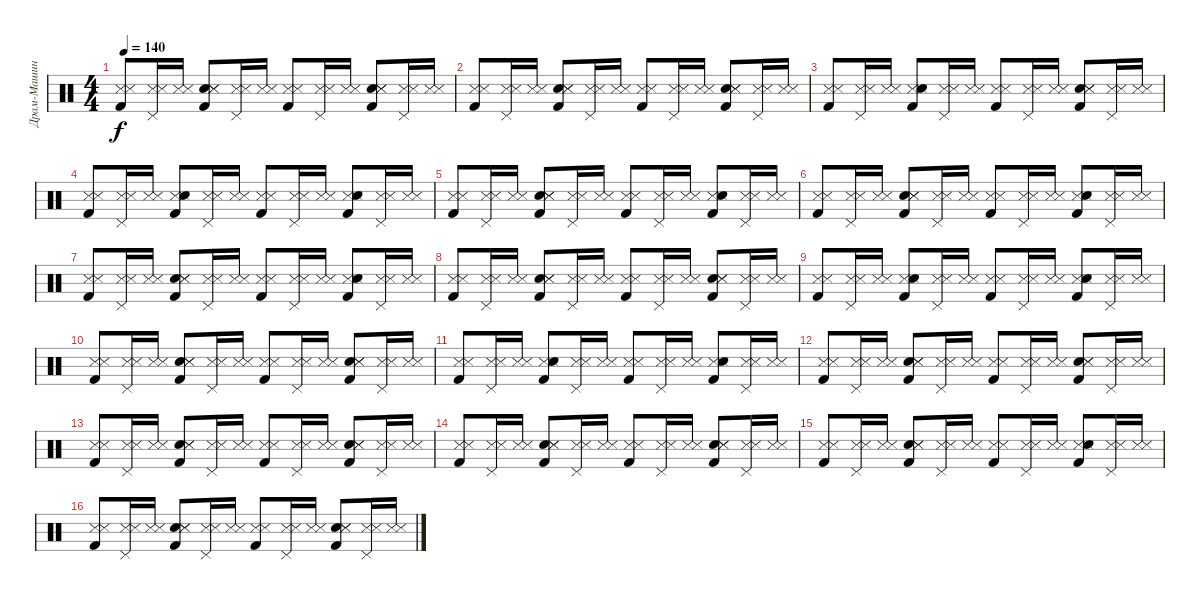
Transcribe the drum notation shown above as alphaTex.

\track ("Драм-Машина" "Драм-Машин") {instrument percussion}
\staff {score}
\articulation defaults
\ts (4 4)
\tempo 140
\clef neutral
\ks c
("Kick (hit) 2" "Snare (side stick) 3" "Metronome (hit)").8{dy f} ("Snare (side stick) 3" "Pedal Hi-Hat (hit)" "Metronome (hit)").16 ("Snare (side stick) 3" "Metronome (hit)").16 ("Kick (hit) 2" "Snare (hit) 2" "Snare (side stick) 3" "Metronome (hit)").8 ("Pedal Hi-Hat (hit)" "Snare (side stick) 3" "Metronome (hit)").16 ("Snare (side stick) 3" "Metronome (hit)").16 ("Kick (hit) 2" "Snare (side stick) 3" "Metronome (hit)").8 ("Snare (side stick) 3" "Pedal Hi-Hat (hit)" "Metronome (hit)").16 ("Snare (side stick) 3" "Metronome (hit)").16 ("Snare (hit) 2" "Snare (side stick) 3" "Kick (hit) 2" "Metronome (hit)").8 ("Pedal Hi-Hat (hit)" "Snare (side stick) 3" "Metronome (hit)").16 ("Snare (side stick) 3" "Metronome (hit)").16 |
("Kick (hit) 2" "Snare (side stick) 3" "Metronome (hit)").8 ("Snare (side stick) 3" "Pedal Hi-Hat (hit)" "Metronome (hit)").16 ("Snare (side stick) 3" "Metronome (hit)").16 ("Kick (hit) 2" "Snare (hit) 2" "Snare (side stick) 3" "Metronome (hit)").8 ("Pedal Hi-Hat (hit)" "Snare (side stick) 3" "Metronome (hit)").16 ("Snare (side stick) 3" "Metronome (hit)").16 ("Kick (hit) 2" "Snare (side stick) 3" "Metronome (hit)").8 ("Pedal Hi-Hat (hit)" "Snare (side stick) 3" "Metronome (hit)").16 ("Snare (side stick) 3" "Metronome (hit)").16 ("Kick (hit) 2" "Snare (hit) 2" "Snare (side stick) 3" "Metronome (hit)").8 ("Pedal Hi-Hat (hit)" "Snare (side stick) 3" "Metronome (hit)").16 ("Snare (side stick) 3" "Metronome (hit)").16 |
("Snare (side stick) 3" "Kick (hit) 2" "Metronome (hit)").8 ("Pedal Hi-Hat (hit)" "Snare (side stick) 3" "Metronome (hit)").16 ("Snare (side stick) 3" "Metronome (hit)").16 ("Snare (side stick) 3" "Kick (hit) 2" "Snare (hit) 2" "Metronome (hit)").8 ("Snare (side stick) 3" "Pedal Hi-Hat (hit)" "Metronome (hit)").16 ("Snare (side stick) 3" "Metronome (hit)").16 ("Kick (hit) 2" "Snare (side stick) 3" "Metronome (hit)").8 ("Pedal Hi-Hat (hit)" "Snare (side stick) 3" "Metronome (hit)").16 ("Snare (side stick) 3" "Metronome (hit)").16 ("Kick (hit) 2" "Snare (hit) 2" "Snare (side stick) 3" "Metronome (hit)").8 ("Pedal Hi-Hat (hit)" "Snare (side stick) 3" "Metronome (hit)").16 ("Snare (side stick) 3" "Metronome (hit)").16 |
("Kick (hit) 2" "Snare (side stick) 3" "Metronome (hit)").8 ("Pedal Hi-Hat (hit)" "Snare (side stick) 3" "Metronome (hit)").16 ("Snare (side stick) 3" "Metronome (hit)").16 ("Snare (side stick) 3" "Kick (hit) 2" "Snare (hit) 2" "Metronome (hit)").8 ("Pedal Hi-Hat (hit)" "Snare (side stick) 3" "Metronome (hit)").16 ("Snare (side stick) 3" "Metronome (hit)").16 ("Kick (hit) 2" "Snare (side stick) 3" "Metronome (hit)").8 ("Pedal Hi-Hat (hit)" "Snare (side stick) 3" "Metronome (hit)").16 ("Snare (side stick) 3" "Metronome (hit)").16 ("Kick (hit) 2" "Snare (side stick) 3" "Snare (hit) 2" "Metronome (hit)").8 ("Snare (side stick) 3" "Pedal Hi-Hat (hit)" "Metronome (hit)").16 ("Snare (side stick) 3" "Metronome (hit)").16 |
("Kick (hit) 2" "Snare (side stick) 3" "Metronome (hit)").8 ("Pedal Hi-Hat (hit)" "Snare (side stick) 3" "Metronome (hit)").16 ("Snare (side stick) 3" "Metronome (hit)").16 ("Snare (hit) 2" "Snare (side stick) 3" "Kick (hit) 2" "Metronome (hit)").8 ("Snare (side stick) 3" "Pedal Hi-Hat (hit)" "Metronome (hit)").16 ("Snare (side stick) 3" "Metronome (hit)").16 ("Snare (side stick) 3" "Kick (hit) 2" "Metronome (hit)").8 ("Pedal Hi-Hat (hit)" "Snare (side stick) 3" "Metronome (hit)").16 ("Snare (side stick) 3" "Metronome (hit)").16 ("Kick (hit) 2" "Snare (side stick) 3" "Snare (hit) 2" "Metronome (hit)").8 ("Snare (side stick) 3" "Pedal Hi-Hat (hit)" "Metronome (hit)").16 ("Snare (side stick) 3" "Metronome (hit)").16 |
("Kick (hit) 2" "Snare (side stick) 3" "Metronome (hit)").8 ("Pedal Hi-Hat (hit)" "Snare (side stick) 3" "Metronome (hit)").16 ("Snare (side stick) 3" "Metronome (hit)").16 ("Snare (hit) 2" "Kick (hit) 2" "Snare (side stick) 3" "Metronome (hit)").8 ("Pedal Hi-Hat (hit)" "Snare (side stick) 3" "Metronome (hit)").16 ("Snare (side stick) 3" "Metronome (hit)").16 ("Kick (hit) 2" "Snare (side stick) 3" "Metronome (hit)").8 ("Snare (side stick) 3" "Pedal Hi-Hat (hit)" "Metronome (hit)").16 ("Snare (side stick) 3" "Metronome (hit)").16 ("Snare (side stick) 3" "Kick (hit) 2" "Snare (hit) 2" "Metronome (hit)").8 ("Pedal Hi-Hat (hit)" "Snare (side stick) 3" "Metronome (hit)").16 ("Snare (side stick) 3" "Metronome (hit)").16 |
("Kick (hit) 2" "Snare (side stick) 3" "Metronome (hit)").8 ("Pedal Hi-Hat (hit)" "Snare (side stick) 3" "Metronome (hit)").16 ("Snare (side stick) 3" "Metronome (hit)").16 ("Snare (hit) 2" "Kick (hit) 2" "Snare (side stick) 3" "Metronome (hit)").8 ("Pedal Hi-Hat (hit)" "Snare (side stick) 3" "Metronome (hit)").16 ("Snare (side stick) 3" "Metronome (hit)").16 ("Kick (hit) 2" "Snare (side stick) 3" "Metronome (hit)").8 ("Snare (side stick) 3" "Pedal Hi-Hat (hit)" "Metronome (hit)").16 ("Snare (side stick) 3" "Metronome (hit)").16 ("Kick (hit) 2" "Snare (side stick) 3" "Snare (hit) 2" "Metronome (hit)").8 ("Pedal Hi-Hat (hit)" "Snare (side stick) 3" "Metronome (hit)").16 ("Snare (side stick) 3" "Metronome (hit)").16 |
("Kick (hit) 2" "Snare (side stick) 3" "Metronome (hit)").8 ("Pedal Hi-Hat (hit)" "Snare (side stick) 3" "Metronome (hit)").16 ("Snare (side stick) 3" "Metronome (hit)").16 ("Snare (hit) 2" "Kick (hit) 2" "Snare (side stick) 3" "Metronome (hit)").8 ("Pedal Hi-Hat (hit)" "Snare (side stick) 3" "Metronome (hit)").16 ("Snare (side stick) 3" "Metronome (hit)").16 ("Snare (side stick) 3" "Kick (hit) 2" "Metronome (hit)").8 ("Snare (side stick) 3" "Pedal Hi-Hat (hit)" "Metronome (hit)").16 ("Snare (side stick) 3" "Metronome (hit)").16 ("Kick (hit) 2" "Snare (hit) 2" "Snare (side stick) 3" "Metronome (hit)").8 ("Pedal Hi-Hat (hit)" "Snare (side stick) 3" "Metronome (hit)").16 ("Snare (side stick) 3" "Metronome (hit)").16 |
("Kick (hit) 2" "Snare (side stick) 3" "Metronome (hit)").8 ("Pedal Hi-Hat (hit)" "Snare (side stick) 3" "Metronome (hit)").16 ("Snare (side stick) 3" "Metronome (hit)").16 ("Snare (side stick) 3" "Snare (hit) 2" "Kick (hit) 2" "Metronome (hit)").8 ("Pedal Hi-Hat (hit)" "Snare (side stick) 3" "Metronome (hit)").16 ("Snare (side stick) 3" "Metronome (hit)").16 ("Snare (side stick) 3" "Kick (hit) 2" "Metronome (hit)").8 ("Pedal Hi-Hat (hit)" "Snare (side stick) 3" "Metronome (hit)").16 ("Snare (side stick) 3" "Metronome (hit)").16 ("Kick (hit) 2" "Snare (side stick) 3" "Snare (hit) 2" "Metronome (hit)").8 ("Pedal Hi-Hat (hit)" "Snare (side stick) 3" "Metronome (hit)").16 ("Snare (side stick) 3" "Metronome (hit)").16 |
("Kick (hit) 2" "Snare (side stick) 3" "Metronome (hit)").8 ("Snare (side stick) 3" "Pedal Hi-Hat (hit)" "Metronome (hit)").16 ("Snare (side stick) 3" "Metronome (hit)").16 ("Snare (hit) 2" "Kick (hit) 2" "Snare (side stick) 3" "Metronome (hit)").8 ("Pedal Hi-Hat (hit)" "Snare (side stick) 3" "Metronome (hit)").16 ("Snare (side stick) 3" "Metronome (hit)").16 ("Snare (side stick) 3" "Kick (hit) 2" "Metronome (hit)").8 ("Pedal Hi-Hat (hit)" "Snare (side stick) 3" "Metronome (hit)").16 ("Snare (side stick) 3" "Metronome (hit)").16 ("Kick (hit) 2" "Snare (hit) 2" "Snare (side stick) 3" "Metronome (hit)").8 ("Pedal Hi-Hat (hit)" "Snare (side stick) 3" "Metronome (hit)").16 ("Snare (side stick) 3" "Metronome (hit)").16 |
("Kick (hit) 2" "Snare (side stick) 3" "Metronome (hit)").8 ("Pedal Hi-Hat (hit)" "Snare (side stick) 3" "Metronome (hit)").16 ("Snare (side stick) 3" "Metronome (hit)").16 ("Kick (hit) 2" "Snare (side stick) 3" "Snare (hit) 2" "Metronome (hit)").8 ("Pedal Hi-Hat (hit)" "Snare (side stick) 3" "Metronome (hit)").16 ("Snare (side stick) 3" "Metronome (hit)").16 ("Kick (hit) 2" "Snare (side stick) 3" "Metronome (hit)").8 ("Pedal Hi-Hat (hit)" "Snare (side stick) 3" "Metronome (hit)").16 ("Snare (side stick) 3" "Metronome (hit)").16 ("Snare (side stick) 3" "Snare (hit) 2" "Kick (hit) 2" "Metronome (hit)").8 ("Snare (side stick) 3" "Pedal Hi-Hat (hit)" "Metronome (hit)").16 ("Snare (side stick) 3" "Metronome (hit)").16 |
("Snare (side stick) 3" "Kick (hit) 2" "Metronome (hit)").8 ("Snare (side stick) 3" "Pedal Hi-Hat (hit)" "Metronome (hit)").16 ("Snare (side stick) 3" "Metronome (hit)").16 ("Snare (hit) 2" "Snare (side stick) 3" "Kick (hit) 2" "Metronome (hit)").8 ("Pedal Hi-Hat (hit)" "Snare (side stick) 3" "Metronome (hit)").16 ("Snare (side stick) 3" "Metronome (hit)").16 ("Kick (hit) 2" "Snare (side stick) 3" "Metronome (hit)").8 ("Snare (side stick) 3" "Pedal Hi-Hat (hit)" "Metronome (hit)").16 ("Snare (side stick) 3" "Metronome (hit)").16 ("Kick (hit) 2" "Snare (hit) 2" "Snare (side stick) 3" "Metronome (hit)").8 ("Pedal Hi-Hat (hit)" "Snare (side stick) 3" "Metronome (hit)").16 ("Snare (side stick) 3" "Metronome (hit)").16 |
("Kick (hit) 2" "Snare (side stick) 3" "Metronome (hit)").8 ("Pedal Hi-Hat (hit)" "Snare (side stick) 3" "Metronome (hit)").16 ("Snare (side stick) 3" "Metronome (hit)").16 ("Kick (hit) 2" "Snare (hit) 2" "Snare (side stick) 3" "Metronome (hit)").8 ("Pedal Hi-Hat (hit)" "Snare (side stick) 3" "Metronome (hit)").16 ("Snare (side stick) 3" "Metronome (hit)").16 ("Snare (side stick) 3" "Kick (hit) 2" "Metronome (hit)").8 ("Pedal Hi-Hat (hit)" "Snare (side stick) 3" "Metronome (hit)").16 ("Snare (side stick) 3" "Metronome (hit)").16 ("Kick (hit) 2" "Snare (hit) 2" "Snare (side stick) 3" "Metronome (hit)").8 ("Pedal Hi-Hat (hit)" "Snare (side stick) 3" "Metronome (hit)").16 ("Snare (side stick) 3" "Metronome (hit)").16 |
("Kick (hit) 2" "Snare (side stick) 3" "Metronome (hit)").8 ("Pedal Hi-Hat (hit)" "Snare (side stick) 3" "Metronome (hit)").16 ("Snare (side stick) 3" "Metronome (hit)").16 ("Kick (hit) 2" "Snare (hit) 2" "Snare (side stick) 3" "Metronome (hit)").8 ("Pedal Hi-Hat (hit)" "Snare (side stick) 3" "Metronome (hit)").16 ("Snare (side stick) 3" "Metronome (hit)").16 ("Snare (side stick) 3" "Kick (hit) 2" "Metronome (hit)").8 ("Pedal Hi-Hat (hit)" "Snare (side stick) 3" "Metronome (hit)").16 ("Snare (side stick) 3" "Metronome (hit)").16 ("Kick (hit) 2" "Snare (hit) 2" "Snare (side stick) 3" "Metronome (hit)").8 ("Pedal Hi-Hat (hit)" "Snare (side stick) 3" "Metronome (hit)").16 ("Snare (side stick) 3" "Metronome (hit)").16 |
("Kick (hit) 2" "Snare (side stick) 3" "Metronome (hit)").8 ("Pedal Hi-Hat (hit)" "Snare (side stick) 3" "Metronome (hit)").16 ("Snare (side stick) 3" "Metronome (hit)").16 ("Snare (hit) 2" "Kick (hit) 2" "Snare (side stick) 3" "Metronome (hit)").8 ("Pedal Hi-Hat (hit)" "Snare (side stick) 3" "Metronome (hit)").16 ("Snare (side stick) 3" "Metronome (hit)").16 ("Snare (side stick) 3" "Kick (hit) 2" "Metronome (hit)").8 ("Snare (side stick) 3" "Pedal Hi-Hat (hit)" "Metronome (hit)").16 ("Snare (side stick) 3" "Metronome (hit)").16 ("Kick (hit) 2" "Snare (side stick) 3" "Snare (hit) 2" "Metronome (hit)").8 ("Pedal Hi-Hat (hit)" "Snare (side stick) 3" "Metronome (hit)").16 ("Snare (side stick) 3" "Metronome (hit)").16 |
("Kick (hit) 2" "Snare (side stick) 3" "Metronome (hit)").8 ("Pedal Hi-Hat (hit)" "Snare (side stick) 3" "Metronome (hit)").16 ("Snare (side stick) 3" "Metronome (hit)").16 ("Snare (hit) 2" "Snare (side stick) 3" "Kick (hit) 2" "Metronome (hit)").8 ("Pedal Hi-Hat (hit)" "Snare (side stick) 3" "Metronome (hit)").16 ("Snare (side stick) 3" "Metronome (hit)").16 ("Snare (side stick) 3" "Kick (hit) 2" "Metronome (hit)").8 ("Pedal Hi-Hat (hit)" "Snare (side stick) 3" "Metronome (hit)").16 ("Snare (side stick) 3" "Metronome (hit)").16 ("Kick (hit) 2" "Snare (hit) 2" "Snare (side stick) 3" "Metronome (hit)").8 ("Pedal Hi-Hat (hit)" "Snare (side stick) 3" "Metronome (hit)").16 ("Snare (side stick) 3" "Metronome (hit)").16
